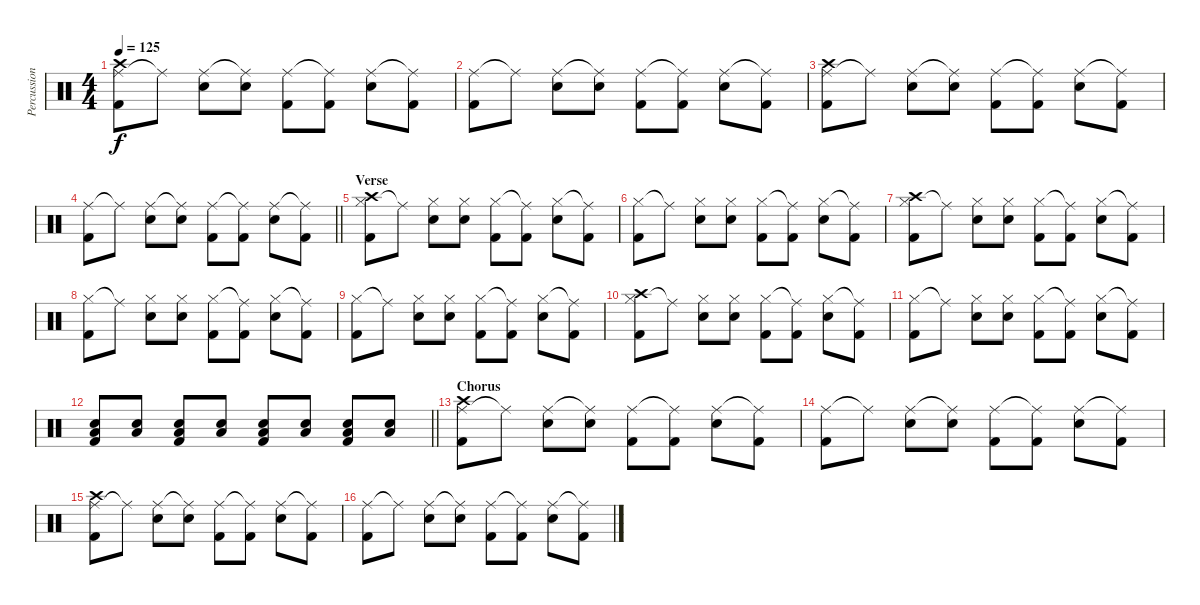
\track ("Percussion" "Percussion") {instrument percussion}
\staff {score}
\articulation defaults
\ts (4 4)
\tempo 125
\clef neutral
\ks c
("Ride (middle)" "Crash high (hit)" "Kick (hit) 2").8{dy f} "Ride (middle)"{t}.8 ("Ride (middle)" "Snare (hit) 2").8 ("Ride (middle)"{t} "Snare (hit) 2").8 ("Ride (middle)" "Kick (hit) 2").8 ("Ride (middle)"{t} "Kick (hit) 2").8 ("Ride (middle)" "Snare (hit) 2").8 ("Ride (middle)"{t} "Kick (hit) 2").8 |
("Ride (middle)" "Kick (hit) 2").8 "Ride (middle)"{t}.8 ("Ride (middle)" "Snare (hit) 2").8 ("Ride (middle)"{t} "Snare (hit) 2").8 ("Ride (middle)" "Kick (hit) 2").8 ("Ride (middle)"{t} "Kick (hit) 2").8 ("Ride (middle)" "Snare (hit) 2").8 ("Ride (middle)"{t} "Kick (hit) 2").8 |
("Ride (middle)" "Crash high (hit)" "Kick (hit) 2").8 "Ride (middle)"{t}.8 ("Ride (middle)" "Snare (hit) 2").8 ("Ride (middle)"{t} "Snare (hit) 2").8 ("Ride (middle)" "Kick (hit) 2").8 ("Ride (middle)"{t} "Kick (hit) 2").8 ("Ride (middle)" "Snare (hit) 2").8 ("Ride (middle)"{t} "Kick (hit) 2").8 |
\barLineRight lightlight
("Ride (middle)" "Kick (hit) 2").8 "Ride (middle)"{t}.8 ("Ride (middle)" "Snare (hit) 2").8 ("Ride (middle)"{t} "Snare (hit) 2").8 ("Ride (middle)" "Kick (hit) 2").8 ("Ride (middle)"{t} "Kick (hit) 2").8 ("Ride (middle)" "Snare (hit) 2").8 ("Ride (middle)"{t} "Kick (hit) 2").8 |
\section ("" "Verse")
("Hi-Hat (closed)" "Crash high (hit)" "Kick (hit) 2").8 "Ride (middle)"{t}.8 ("Hi-Hat (closed)" "Snare (hit) 2").8 ("Hi-Hat (closed)" "Snare (hit) 2").8 ("Hi-Hat (closed)" "Kick (hit) 2").8 ("Ride (middle)"{t} "Kick (hit) 2").8 ("Hi-Hat (closed)" "Snare (hit) 2").8 ("Ride (middle)"{t} "Kick (hit) 2").8 |
("Hi-Hat (closed)" "Kick (hit) 2").8 "Ride (middle)"{t}.8 ("Hi-Hat (closed)" "Snare (hit) 2").8 ("Hi-Hat (closed)" "Snare (hit) 2").8 ("Hi-Hat (closed)" "Kick (hit) 2").8 ("Ride (middle)"{t} "Kick (hit) 2").8 ("Hi-Hat (closed)" "Snare (hit) 2").8 ("Ride (middle)"{t} "Kick (hit) 2").8 |
("Hi-Hat (closed)" "Crash high (hit)" "Kick (hit) 2").8 "Ride (middle)"{t}.8 ("Hi-Hat (closed)" "Snare (hit) 2").8 ("Hi-Hat (closed)" "Snare (hit) 2").8 ("Hi-Hat (closed)" "Kick (hit) 2").8 ("Ride (middle)"{t} "Kick (hit) 2").8 ("Hi-Hat (closed)" "Snare (hit) 2").8 ("Ride (middle)"{t} "Kick (hit) 2").8 |
("Hi-Hat (closed)" "Kick (hit) 2").8 "Ride (middle)"{t}.8 ("Hi-Hat (closed)" "Snare (hit) 2").8 ("Hi-Hat (closed)" "Snare (hit) 2").8 ("Hi-Hat (closed)" "Kick (hit) 2").8 ("Ride (middle)"{t} "Kick (hit) 2").8 ("Hi-Hat (closed)" "Snare (hit) 2").8 ("Ride (middle)"{t} "Kick (hit) 2").8 |
("Hi-Hat (closed)" "Kick (hit) 2").8 "Ride (middle)"{t}.8 ("Hi-Hat (closed)" "Snare (hit) 2").8 ("Hi-Hat (closed)" "Snare (hit) 2").8 ("Hi-Hat (closed)" "Kick (hit) 2").8 ("Ride (middle)"{t} "Kick (hit) 2").8 ("Hi-Hat (closed)" "Snare (hit) 2").8 ("Ride (middle)"{t} "Kick (hit) 2").8 |
("Hi-Hat (closed)" "Crash high (hit)" "Kick (hit) 2").8 "Ride (middle)"{t}.8 ("Hi-Hat (closed)" "Snare (hit) 2").8 ("Hi-Hat (closed)" "Snare (hit) 2").8 ("Hi-Hat (closed)" "Kick (hit) 2").8 ("Ride (middle)"{t} "Kick (hit) 2").8 ("Hi-Hat (closed)" "Snare (hit) 2").8 ("Ride (middle)"{t} "Kick (hit) 2").8 |
("Hi-Hat (closed)" "Kick (hit) 2").8 "Ride (middle)"{t}.8 ("Hi-Hat (closed)" "Snare (hit) 2").8 ("Hi-Hat (closed)" "Snare (hit) 2").8 ("Hi-Hat (closed)" "Kick (hit) 2").8 ("Ride (middle)"{t} "Kick (hit) 2").8 ("Hi-Hat (closed)" "Snare (hit) 2").8 ("Ride (middle)"{t} "Kick (hit) 2").8 |
\barLineRight lightlight
("Snare (hit) 2" "Low Floor Tom (hit)" "Kick (hit) 2").8 ("Snare (hit) 2" "Low Floor Tom (hit)").8 ("Snare (hit) 2" "Low Floor Tom (hit)" "Kick (hit) 2").8 ("Snare (hit) 2" "Low Floor Tom (hit)").8 ("Snare (hit) 2" "Low Floor Tom (hit)" "Kick (hit) 2").8 ("Snare (hit) 2" "Low Floor Tom (hit)").8 ("Snare (hit) 2" "Low Floor Tom (hit)" "Kick (hit) 2").8 ("Snare (hit) 2" "Low Floor Tom (hit)").8 |
\section ("" "Chorus")
("Ride (middle)" "Crash high (hit)" "Kick (hit) 2").8 "Ride (middle)"{t}.8 ("Ride (middle)" "Snare (hit) 2").8 ("Ride (middle)"{t} "Snare (hit) 2").8 ("Ride (middle)" "Kick (hit) 2").8 ("Ride (middle)"{t} "Kick (hit) 2").8 ("Ride (middle)" "Snare (hit) 2").8 ("Ride (middle)"{t} "Kick (hit) 2").8 |
("Ride (middle)" "Kick (hit) 2").8 "Ride (middle)"{t}.8 ("Ride (middle)" "Snare (hit) 2").8 ("Ride (middle)"{t} "Snare (hit) 2").8 ("Ride (middle)" "Kick (hit) 2").8 ("Ride (middle)"{t} "Kick (hit) 2").8 ("Ride (middle)" "Snare (hit) 2").8 ("Ride (middle)"{t} "Kick (hit) 2").8 |
("Ride (middle)" "Crash high (hit)" "Kick (hit) 2").8 "Ride (middle)"{t}.8 ("Ride (middle)" "Snare (hit) 2").8 ("Ride (middle)"{t} "Snare (hit) 2").8 ("Ride (middle)" "Kick (hit) 2").8 ("Ride (middle)"{t} "Kick (hit) 2").8 ("Ride (middle)" "Snare (hit) 2").8 ("Ride (middle)"{t} "Kick (hit) 2").8 |
("Ride (middle)" "Kick (hit) 2").8 "Ride (middle)"{t}.8 ("Ride (middle)" "Snare (hit) 2").8 ("Ride (middle)"{t} "Snare (hit) 2").8 ("Ride (middle)" "Kick (hit) 2").8 ("Ride (middle)"{t} "Kick (hit) 2").8 ("Ride (middle)" "Snare (hit) 2").8 ("Ride (middle)"{t} "Kick (hit) 2").8
